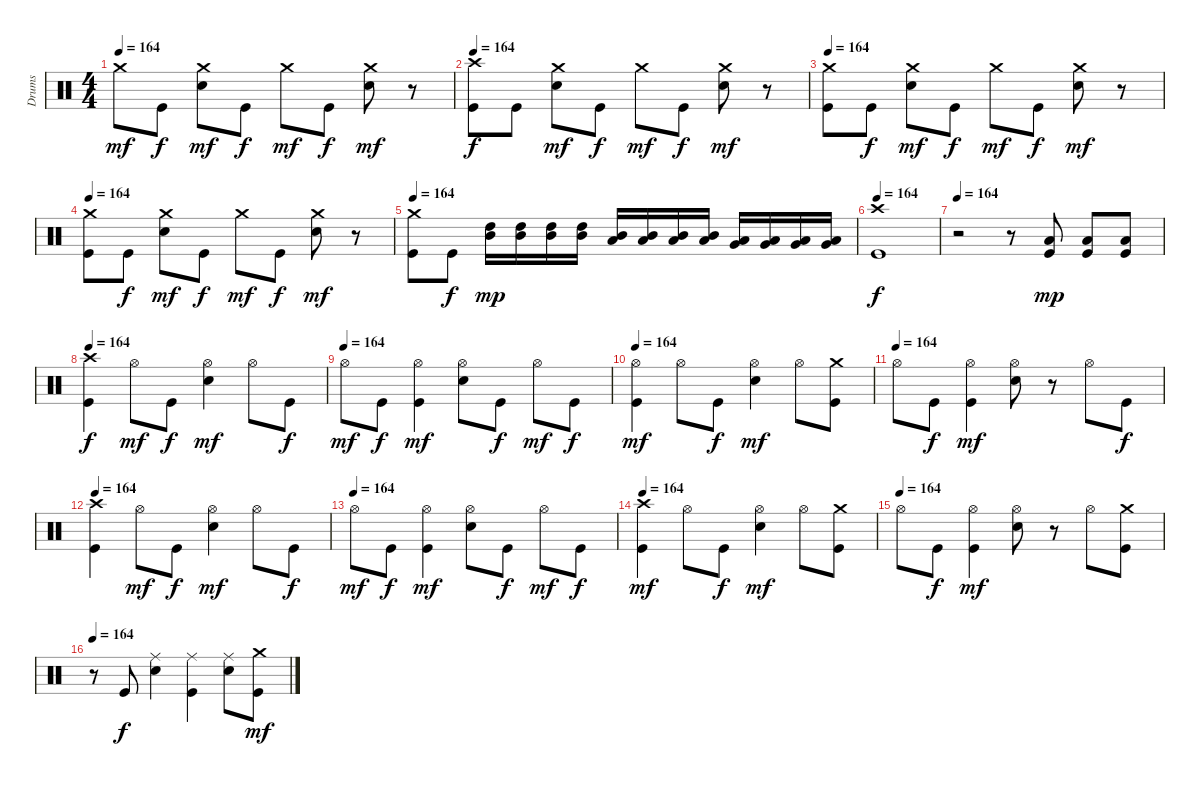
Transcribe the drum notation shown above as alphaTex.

\track ("Drums" "Drums") {instrument percussion}
\staff {score}
\articulation defaults
\ts (4 4)
\tempo 164
\clef neutral
\ks c "Crash medium (hit)".8{dy mf} "Kick (hit)".8{dy f}
("Electric Snare (hit)" "Crash medium (hit)").8{dy mf} "Kick (hit)".8{dy f} "Crash medium (hit)".8{dy mf} "Kick (hit)".8{dy f} ("Electric Snare (hit)" "Crash medium (hit)").8{dy mf} r.8 |
\tempo 164
("Kick (hit)" "Crash high (hit)").8{dy f} "Kick (hit)".8 ("Electric Snare (hit)" "Crash medium (hit)").8{dy mf} "Kick (hit)".8{dy f} "Crash medium (hit)".8{dy mf} "Kick (hit)".8{dy f} ("Electric Snare (hit)" "Crash medium (hit)").8{dy mf} r.8 |
\tempo 164
("Kick (hit)" "Crash medium (hit)").8 "Kick (hit)".8{dy f} ("Electric Snare (hit)" "Crash medium (hit)").8{dy mf} "Kick (hit)".8{dy f} "Crash medium (hit)".8{dy mf} "Kick (hit)".8{dy f} ("Electric Snare (hit)" "Crash medium (hit)").8{dy mf} r.8 |
\tempo 164
("Kick (hit)" "Crash medium (hit)").8 "Kick (hit)".8{dy f} ("Electric Snare (hit)" "Crash medium (hit)").8{dy mf} "Kick (hit)".8{dy f} "Crash medium (hit)".8{dy mf} "Kick (hit)".8{dy f} ("Electric Snare (hit)" "Crash medium (hit)").8{dy mf} r.8 |
\tempo 164
("Kick (hit)" "Crash medium (hit)").8 "Kick (hit)".8{dy f} ("High Tom (hit)" "Mid Tom (hit)").16{dy mp} ("High Tom (hit)" "Mid Tom (hit)").16 ("High Tom (hit)" "Mid Tom (hit)").16 ("High Tom (hit)" "Mid Tom (hit)").16 ("Mid Tom (hit)" "Low Tom (hit)").16 ("Mid Tom (hit)" "Low Tom (hit)").16 ("Mid Tom (hit)" "Low Tom (hit)").16 ("Mid Tom (hit)" "Low Tom (hit)").16 ("Very Low Tom (hit)" "Low Floor Tom (hit)").16 ("Very Low Tom (hit)" "Low Floor Tom (hit)").16 ("Very Low Tom (hit)" "Low Floor Tom (hit)").16 ("Very Low Tom (hit)" "Low Floor Tom (hit)").16 |
\tempo 164
("Kick (hit)" "Crash high (hit)").1{dy f} |
\tempo 164
r.2 r.8 ("Kick (hit)" "Low Floor Tom (hit)").8{dy mp} ("Kick (hit)" "Low Floor Tom (hit)").8 ("Kick (hit)" "Low Floor Tom (hit)").8 |
\tempo 164
("Kick (hit)" "Crash high (hit)").4{dy f} "Hi-Hat (open)".8{dy mf} "Kick (hit)".8{dy f} ("Electric Snare (hit)" "Hi-Hat (open)").4{dy mf} "Hi-Hat (open)".8 "Kick (hit)".8{dy f} |
\tempo (164)
"Hi-Hat (open)".8{dy mf} "Kick (hit)".8{dy f} ("Kick (hit)" "Hi-Hat (open)").4{dy mf} ("Electric Snare (hit)" "Hi-Hat (open)").8 "Kick (hit)".8{dy f} "Hi-Hat (open)".8{dy mf} "Kick (hit)".8{dy f} |
\tempo 164
("Kick (hit)" "Hi-Hat (open)").4{dy mf} "Hi-Hat (open)".8 "Kick (hit)".8{dy f} ("Electric Snare (hit)" "Hi-Hat (open)").4{dy mf} "Hi-Hat (open)".8 ("Kick (hit)" "Crash medium (hit)").8 |
\tempo (164)
"Hi-Hat (open)".8 "Kick (hit)".8{dy f} ("Kick (hit)" "Hi-Hat (open)").4{dy mf} ("Electric Snare (hit)" "Hi-Hat (open)").8 r.8 "Hi-Hat (open)".8 "Kick (hit)".8{dy f} |
\tempo 164
("Kick (hit)" "Crash high (hit)").4 "Hi-Hat (open)".8{dy mf} "Kick (hit)".8{dy f} ("Electric Snare (hit)" "Hi-Hat (open)").4{dy mf} "Hi-Hat (open)".8 "Kick (hit)".8{dy f} |
\tempo (164)
"Hi-Hat (open)".8{dy mf} "Kick (hit)".8{dy f} ("Kick (hit)" "Hi-Hat (open)").4{dy mf} ("Electric Snare (hit)" "Hi-Hat (open)").8 "Kick (hit)".8{dy f} "Hi-Hat (open)".8{dy mf} "Kick (hit)".8{dy f} |
\tempo 164
("Kick (hit)" "Crash high (hit)").4{dy mf} "Hi-Hat (open)".8 "Kick (hit)".8{dy f} ("Electric Snare (hit)" "Hi-Hat (open)").4{dy mf} "Hi-Hat (open)".8 ("Kick (hit)" "Crash medium (hit)").8 |
\tempo (164)
"Hi-Hat (open)".8 "Kick (hit)".8{dy f} ("Kick (hit)" "Hi-Hat (open)").4{dy mf} ("Electric Snare (hit)" "Hi-Hat (open)").8 r.8 "Hi-Hat (open)".8 ("Kick (hit)" "Crash medium (hit)").8 |
\tempo 164
r.8 "Kick (hit)".8{dy f} ("Electric Snare (hit)" "Ride (middle)").4 ("Kick (hit)" "Ride (middle)").4 ("Electric Snare (hit)" "Ride (middle)").8 ("Kick (hit)" "Crash medium (hit)").8{dy mf}
